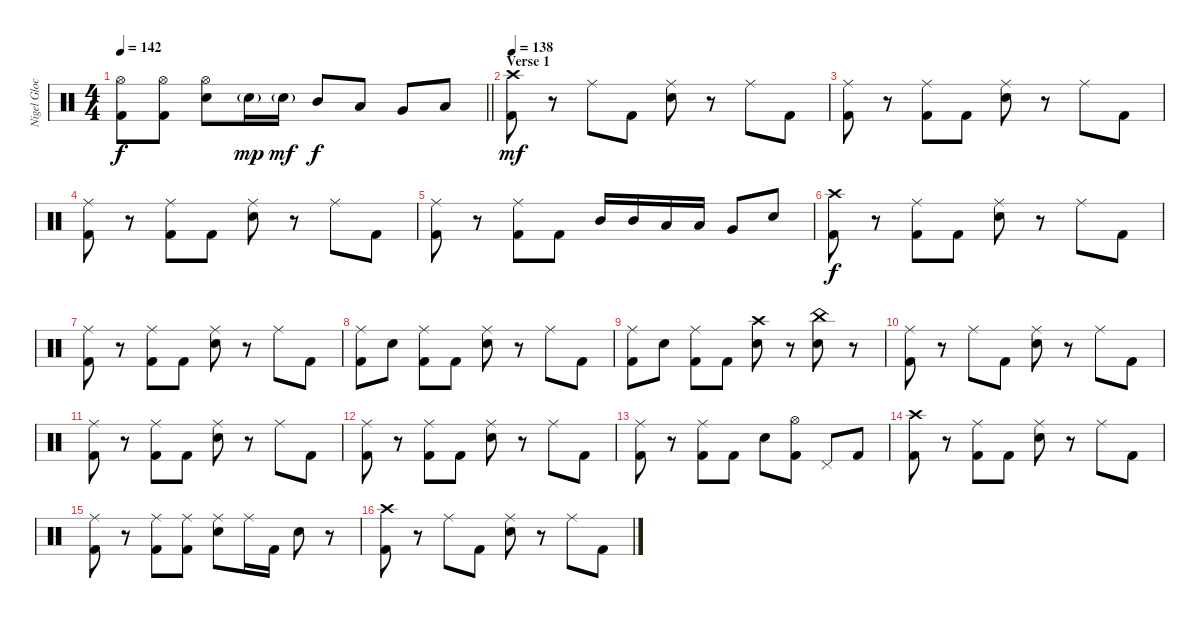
\track ("Nigel Glockler (Drums)" "Nigel Gloc") {instrument percussion}
\staff {score}
\articulation defaults
\ts (4 4)
\tempo 142
\clef neutral
\barLineRight lightlight
\ks c
("Hi-Hat (open)" "Kick (hit) 2").8{dy f} ("Hi-Hat (open)" "Kick (hit) 2").8 ("Hi-Hat (open)" "Snare (hit) 2").8 "Snare (hit) 2"{g}.16{dy mp} "Snare (hit) 2"{g}.16{dy mf} "Mid Tom (hit)".8{dy f} "Low Tom (hit)".8 "Very Low Tom (hit)".8 "Low Floor Tom (hit)".8 |
\section ("" "Verse 1")
\tempo 138
("Crash high (hit)" "Kick (hit) 2").8{dy mf} r.8 "Ride (middle)".8 "Kick (hit) 2".8 ("Ride (middle)" "Snare (hit) 2").8 r.8 "Ride (middle)".8 "Kick (hit) 2".8 |
("Ride (middle)" "Kick (hit) 2").8 r.8 ("Ride (middle)" "Kick (hit) 2").8 "Kick (hit) 2".8 ("Ride (middle)" "Snare (hit) 2").8 r.8 "Ride (middle)".8 "Kick (hit) 2".8 |
("Ride (middle)" "Kick (hit) 2").8 r.8 ("Ride (middle)" "Kick (hit) 2").8 "Kick (hit) 2".8 ("Ride (middle)" "Snare (hit) 2").8 r.8 "Ride (middle)".8 "Kick (hit) 2".8 |
("Ride (middle)" "Kick (hit) 2").8 r.8 ("Ride (middle)" "Kick (hit) 2").8 "Kick (hit) 2".8 "Mid Tom (hit)".16 "Mid Tom (hit)".16 "Low Tom (hit)".16 "Low Tom (hit)".16 "Very Low Tom (hit)".8 "Snare (hit) 2".8 |
("Crash high (hit)" "Kick (hit) 2").8{dy f} r.8 ("Ride (middle)" "Kick (hit) 2").8 "Kick (hit) 2".8 ("Ride (middle)" "Snare (hit) 2").8 r.8 "Ride (middle)".8 "Kick (hit) 2".8 |
("Ride (middle)" "Kick (hit) 2").8 r.8 ("Ride (middle)" "Kick (hit) 2").8 "Kick (hit) 2".8 ("Ride (middle)" "Snare (hit) 2").8 r.8 "Ride (middle)".8 "Kick (hit) 2".8 |
("Ride (middle)" "Kick (hit) 2").8 "Snare (hit) 2".8 ("Ride (middle)" "Kick (hit) 2").8 "Kick (hit) 2".8 ("Ride (middle)" "Snare (hit) 2").8 r.8 "Ride (middle)".8 "Kick (hit) 2".8 |
("Ride (middle)" "Kick (hit) 2").8 "Snare (hit) 2".8 ("Ride (middle)" "Kick (hit) 2").8 "Kick (hit) 2".8 ("Crash high (hit)" "Snare (hit) 2").8 r.8 ("China (hit)" "Snare (hit) 2").8 r.8 |
("Ride (middle)" "Kick (hit) 2").8 r.8 "Ride (middle)".8 "Kick (hit) 2".8 ("Ride (middle)" "Snare (hit) 2").8 r.8 "Ride (middle)".8 "Kick (hit) 2".8 |
("Ride (middle)" "Kick (hit) 2").8 r.8 ("Ride (middle)" "Kick (hit) 2").8 "Kick (hit) 2".8 ("Ride (middle)" "Snare (hit) 2").8 r.8 "Ride (middle)".8 "Kick (hit) 2".8 |
("Ride (middle)" "Kick (hit) 2").8 r.8 ("Ride (middle)" "Kick (hit) 2").8 "Kick (hit) 2".8 ("Ride (middle)" "Snare (hit) 2").8 r.8 "Ride (middle)".8 "Kick (hit) 2".8 |
("Ride (middle)" "Kick (hit) 2").8 r.8 ("Ride (middle)" "Kick (hit) 2").8 "Kick (hit) 2".8 "Snare (hit) 2".8 ("Hi-Hat (open)" "Kick (hit) 2").8 "Pedal Hi-Hat (hit)".8 "Kick (hit) 2".8 |
("Crash high (hit)" "Kick (hit) 2").8 r.8 ("Ride (middle)" "Kick (hit) 2").8 "Kick (hit) 2".8 ("Ride (middle)" "Snare (hit) 2").8 r.8 "Ride (middle)".8 "Kick (hit) 2".8 |
("Ride (middle)" "Kick (hit) 2").8 r.8 ("Ride (middle)" "Kick (hit) 2").8 ("Ride (middle)" "Kick (hit) 2").8 ("Ride (middle)" "Snare (hit) 2").8 "Ride (middle)".16 "Kick (hit) 2".16 "Snare (hit) 2".8 r.8 |
("Crash high (hit)" "Kick (hit) 2").8 r.8 "Ride (middle)".8 "Kick (hit) 2".8 ("Ride (middle)" "Snare (hit) 2").8 r.8 "Ride (middle)".8 "Kick (hit) 2".8
